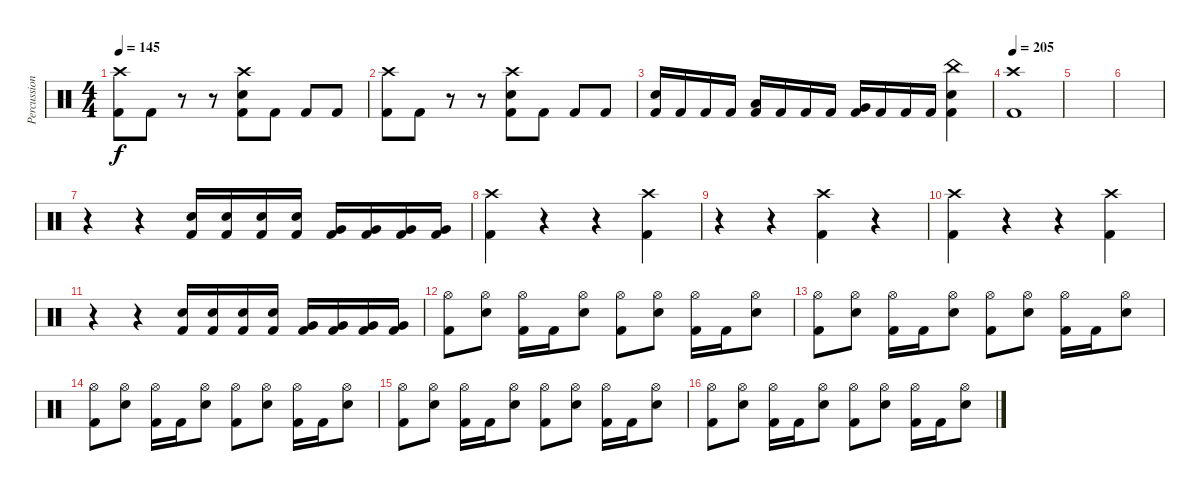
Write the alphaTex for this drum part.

\track ("Percussion" "Percussion") {instrument percussion}
\staff {score}
\articulation defaults
\ts (4 4)
\tempo 145
\clef neutral
\ks c
("Crash high (hit)" "Kick (hit) 2").8{dy f} "Kick (hit) 2".8 r.8 r.8 ("Crash high (hit)" "Electric Snare (hit)" "Kick (hit) 2").8 "Kick (hit) 2".8 "Kick (hit) 2".8 "Kick (hit) 2".8 |
("Crash high (hit)" "Kick (hit) 2").8 "Kick (hit) 2".8 r.8 r.8 ("Crash high (hit)" "Electric Snare (hit)" "Kick (hit) 2").8 "Kick (hit) 2".8 "Kick (hit) 2".8 "Kick (hit) 2".8 |
("Electric Snare (hit)" "Kick (hit) 2").16 "Kick (hit) 2".16 "Kick (hit) 2".16 "Kick (hit) 2".16 ("Low Tom (hit)" "Kick (hit) 2").16 "Kick (hit) 2".16 "Kick (hit) 2".16 "Kick (hit) 2".16 ("Very Low Tom (hit)" "Kick (hit) 2").16 "Kick (hit) 2".16 "Kick (hit) 2".16 "Kick (hit) 2".16 ("China (hit)" "Electric Snare (hit)" "Kick (hit) 2").4 |
\tempo 205
("Crash high (hit)" "Kick (hit) 2").1 |
|
|
r.4 r.4 ("Electric Snare (hit)" "Kick (hit) 2").16 ("Electric Snare (hit)" "Kick (hit) 2").16 ("Electric Snare (hit)" "Kick (hit) 2").16 ("Electric Snare (hit)" "Kick (hit) 2").16 ("Very Low Tom (hit)" "Kick (hit) 2").16 ("Very Low Tom (hit)" "Kick (hit) 2").16 ("Very Low Tom (hit)" "Kick (hit) 2").16 ("Very Low Tom (hit)" "Kick (hit) 2").16 |
("Crash high (hit)" "Kick (hit) 2").4 r.4 r.4 ("Crash high (hit)" "Kick (hit) 2").4 |
r.4 r.4 ("Crash high (hit)" "Kick (hit) 2").4 r.4 |
("Crash high (hit)" "Kick (hit) 2").4 r.4 r.4 ("Crash high (hit)" "Kick (hit) 2").4 |
r.4 r.4 ("Electric Snare (hit)" "Kick (hit) 2").16 ("Electric Snare (hit)" "Kick (hit) 2").16 ("Electric Snare (hit)" "Kick (hit) 2").16 ("Electric Snare (hit)" "Kick (hit) 2").16 ("Very Low Tom (hit)" "Kick (hit) 2").16 ("Very Low Tom (hit)" "Kick (hit) 2").16 ("Very Low Tom (hit)" "Kick (hit) 2").16 ("Very Low Tom (hit)" "Kick (hit) 2").16 |
("Hi-Hat (open)" "Kick (hit) 2").8 ("Hi-Hat (open)" "Electric Snare (hit)").8 ("Hi-Hat (open)" "Kick (hit) 2").16 "Kick (hit) 2".16 ("Hi-Hat (open)" "Electric Snare (hit)").8 ("Hi-Hat (open)" "Kick (hit) 2").8 ("Hi-Hat (open)" "Electric Snare (hit)").8 ("Hi-Hat (open)" "Kick (hit) 2").16 "Kick (hit) 2".16 ("Hi-Hat (open)" "Electric Snare (hit)").8 |
("Hi-Hat (open)" "Kick (hit) 2").8 ("Hi-Hat (open)" "Electric Snare (hit)").8 ("Hi-Hat (open)" "Kick (hit) 2").16 "Kick (hit) 2".16 ("Hi-Hat (open)" "Electric Snare (hit)").8 ("Hi-Hat (open)" "Kick (hit) 2").8 ("Hi-Hat (open)" "Electric Snare (hit)").8 ("Hi-Hat (open)" "Kick (hit) 2").16 "Kick (hit) 2".16 ("Hi-Hat (open)" "Electric Snare (hit)").8 |
("Hi-Hat (open)" "Kick (hit) 2").8 ("Hi-Hat (open)" "Electric Snare (hit)").8 ("Hi-Hat (open)" "Kick (hit) 2").16 "Kick (hit) 2".16 ("Hi-Hat (open)" "Electric Snare (hit)").8 ("Hi-Hat (open)" "Kick (hit) 2").8 ("Hi-Hat (open)" "Electric Snare (hit)").8 ("Hi-Hat (open)" "Kick (hit) 2").16 "Kick (hit) 2".16 ("Hi-Hat (open)" "Electric Snare (hit)").8 |
("Hi-Hat (open)" "Kick (hit) 2").8 ("Hi-Hat (open)" "Electric Snare (hit)").8 ("Hi-Hat (open)" "Kick (hit) 2").16 "Kick (hit) 2".16 ("Hi-Hat (open)" "Electric Snare (hit)").8 ("Hi-Hat (open)" "Kick (hit) 2").8 ("Hi-Hat (open)" "Electric Snare (hit)").8 ("Hi-Hat (open)" "Kick (hit) 2").16 "Kick (hit) 2".16 ("Hi-Hat (open)" "Electric Snare (hit)").8 |
("Hi-Hat (open)" "Kick (hit) 2").8 ("Hi-Hat (open)" "Electric Snare (hit)").8 ("Hi-Hat (open)" "Kick (hit) 2").16 "Kick (hit) 2".16 ("Hi-Hat (open)" "Electric Snare (hit)").8 ("Hi-Hat (open)" "Kick (hit) 2").8 ("Hi-Hat (open)" "Electric Snare (hit)").8 ("Hi-Hat (open)" "Kick (hit) 2").16 "Kick (hit) 2".16 ("Hi-Hat (open)" "Electric Snare (hit)").8
